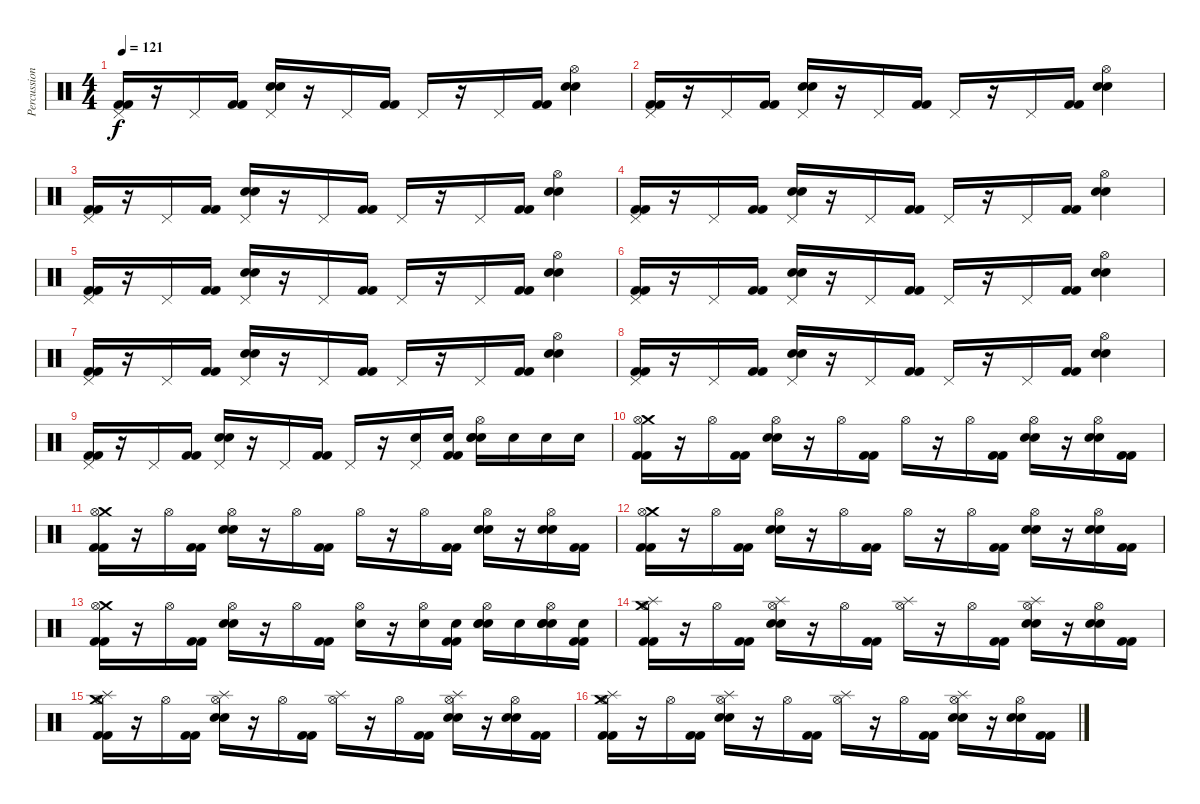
\track ("Percussion- Mike" "Percussion") {instrument percussion}
\staff {score}
\articulation defaults
\ts (4 4)
\tempo 121
\clef neutral
\ks c
("Kick (hit) 2" "Kick (hit) 2" "Pedal Hi-Hat (hit)").16{dy f} r.16 "Pedal Hi-Hat (hit)".16 ("Kick (hit) 2" "Kick (hit) 2").16 ("Snare (hit) 2" "Snare (hit) 2" "Pedal Hi-Hat (hit)").16 r.16 "Pedal Hi-Hat (hit)".16 ("Kick (hit) 2" "Kick (hit) 2").16 "Pedal Hi-Hat (hit)".16 r.16 "Pedal Hi-Hat (hit)".16 ("Kick (hit) 2" "Kick (hit) 2").16 ("Hi-Hat (open)" "Snare (hit) 2" "Snare (hit) 2").4 |
("Kick (hit) 2" "Kick (hit) 2" "Pedal Hi-Hat (hit)").16 r.16 "Pedal Hi-Hat (hit)".16 ("Kick (hit) 2" "Kick (hit) 2").16 ("Snare (hit) 2" "Snare (hit) 2" "Pedal Hi-Hat (hit)").16 r.16 "Pedal Hi-Hat (hit)".16 ("Kick (hit) 2" "Kick (hit) 2").16 "Pedal Hi-Hat (hit)".16 r.16 "Pedal Hi-Hat (hit)".16 ("Kick (hit) 2" "Kick (hit) 2").16 ("Hi-Hat (open)" "Snare (hit) 2" "Snare (hit) 2").4 |
("Kick (hit) 2" "Kick (hit) 2" "Pedal Hi-Hat (hit)").16 r.16 "Pedal Hi-Hat (hit)".16 ("Kick (hit) 2" "Kick (hit) 2").16 ("Snare (hit) 2" "Snare (hit) 2" "Pedal Hi-Hat (hit)").16 r.16 "Pedal Hi-Hat (hit)".16 ("Kick (hit) 2" "Kick (hit) 2").16 "Pedal Hi-Hat (hit)".16 r.16 "Pedal Hi-Hat (hit)".16 ("Kick (hit) 2" "Kick (hit) 2").16 ("Hi-Hat (open)" "Snare (hit) 2" "Snare (hit) 2").4 |
("Kick (hit) 2" "Kick (hit) 2" "Pedal Hi-Hat (hit)").16 r.16 "Pedal Hi-Hat (hit)".16 ("Kick (hit) 2" "Kick (hit) 2").16 ("Snare (hit) 2" "Snare (hit) 2" "Pedal Hi-Hat (hit)").16 r.16 "Pedal Hi-Hat (hit)".16 ("Kick (hit) 2" "Kick (hit) 2").16 "Pedal Hi-Hat (hit)".16 r.16 "Pedal Hi-Hat (hit)".16 ("Kick (hit) 2" "Kick (hit) 2").16 ("Hi-Hat (open)" "Snare (hit) 2" "Snare (hit) 2").4 |
("Kick (hit) 2" "Kick (hit) 2" "Pedal Hi-Hat (hit)").16 r.16 "Pedal Hi-Hat (hit)".16 ("Kick (hit) 2" "Kick (hit) 2").16 ("Snare (hit) 2" "Snare (hit) 2" "Pedal Hi-Hat (hit)").16 r.16 "Pedal Hi-Hat (hit)".16 ("Kick (hit) 2" "Kick (hit) 2").16 "Pedal Hi-Hat (hit)".16 r.16 "Pedal Hi-Hat (hit)".16 ("Kick (hit) 2" "Kick (hit) 2").16 ("Hi-Hat (open)" "Snare (hit) 2" "Snare (hit) 2").4 |
("Kick (hit) 2" "Kick (hit) 2" "Pedal Hi-Hat (hit)").16 r.16 "Pedal Hi-Hat (hit)".16 ("Kick (hit) 2" "Kick (hit) 2").16 ("Snare (hit) 2" "Snare (hit) 2" "Pedal Hi-Hat (hit)").16 r.16 "Pedal Hi-Hat (hit)".16 ("Kick (hit) 2" "Kick (hit) 2").16 "Pedal Hi-Hat (hit)".16 r.16 "Pedal Hi-Hat (hit)".16 ("Kick (hit) 2" "Kick (hit) 2").16 ("Hi-Hat (open)" "Snare (hit) 2" "Snare (hit) 2").4 |
("Kick (hit) 2" "Kick (hit) 2" "Pedal Hi-Hat (hit)").16 r.16 "Pedal Hi-Hat (hit)".16 ("Kick (hit) 2" "Kick (hit) 2").16 ("Snare (hit) 2" "Snare (hit) 2" "Pedal Hi-Hat (hit)").16 r.16 "Pedal Hi-Hat (hit)".16 ("Kick (hit) 2" "Kick (hit) 2").16 "Pedal Hi-Hat (hit)".16 r.16 "Pedal Hi-Hat (hit)".16 ("Kick (hit) 2" "Kick (hit) 2").16 ("Hi-Hat (open)" "Snare (hit) 2" "Snare (hit) 2").4 |
("Kick (hit) 2" "Kick (hit) 2" "Pedal Hi-Hat (hit)").16 r.16 "Pedal Hi-Hat (hit)".16 ("Kick (hit) 2" "Kick (hit) 2").16 ("Snare (hit) 2" "Snare (hit) 2" "Pedal Hi-Hat (hit)").16 r.16 "Pedal Hi-Hat (hit)".16 ("Kick (hit) 2" "Kick (hit) 2").16 "Pedal Hi-Hat (hit)".16 r.16 "Pedal Hi-Hat (hit)".16 ("Kick (hit) 2" "Kick (hit) 2").16 ("Hi-Hat (open)" "Snare (hit) 2" "Snare (hit) 2").4 |
("Kick (hit) 2" "Kick (hit) 2" "Pedal Hi-Hat (hit)").16 r.16 "Pedal Hi-Hat (hit)".16 ("Kick (hit) 2" "Kick (hit) 2").16 ("Snare (hit) 2" "Snare (hit) 2" "Pedal Hi-Hat (hit)").16 r.16 "Pedal Hi-Hat (hit)".16 ("Kick (hit) 2" "Kick (hit) 2").16 "Pedal Hi-Hat (hit)".16 r.16 ("Electric Snare (hit)" "Pedal Hi-Hat (hit)").16 ("Electric Snare (hit)" "Kick (hit) 2" "Kick (hit) 2").16 ("Electric Snare (hit)" "Hi-Hat (open)" "Snare (hit) 2" "Snare (hit) 2").16 "Electric Snare (hit)".16 "Electric Snare (hit)".16 "Electric Snare (hit)".16 |
("Crash medium (hit)" "Kick (hit) 2" "Kick (hit) 2" "Hi-Hat (open)").16 r.16 "Hi-Hat (open)".16 ("Kick (hit) 2" "Kick (hit) 2").16 ("Snare (hit) 2" "Snare (hit) 2" "Hi-Hat (open)").16 r.16 "Hi-Hat (open)".16 ("Kick (hit) 2" "Kick (hit) 2").16 "Hi-Hat (open)".16 r.16 "Hi-Hat (open)".16 ("Kick (hit) 2" "Kick (hit) 2").16 ("Snare (hit) 2" "Snare (hit) 2" "Hi-Hat (open)").16 r.16 ("Electric Snare (hit)" "Electric Snare (hit)" "Hi-Hat (open)").16 ("Kick (hit) 2" "Kick (hit) 2").16 |
("Crash medium (hit)" "Kick (hit) 2" "Kick (hit) 2" "Hi-Hat (open)").16 r.16 "Hi-Hat (open)".16 ("Kick (hit) 2" "Kick (hit) 2").16 ("Snare (hit) 2" "Snare (hit) 2" "Hi-Hat (open)").16 r.16 "Hi-Hat (open)".16 ("Kick (hit) 2" "Kick (hit) 2").16 "Hi-Hat (open)".16 r.16 "Hi-Hat (open)".16 ("Kick (hit) 2" "Kick (hit) 2").16 ("Snare (hit) 2" "Snare (hit) 2" "Hi-Hat (open)").16 r.16 ("Electric Snare (hit)" "Electric Snare (hit)" "Hi-Hat (open)").16 ("Kick (hit) 2" "Kick (hit) 2").16 |
("Crash medium (hit)" "Kick (hit) 2" "Kick (hit) 2" "Hi-Hat (open)").16 r.16 "Hi-Hat (open)".16 ("Kick (hit) 2" "Kick (hit) 2").16 ("Snare (hit) 2" "Snare (hit) 2" "Hi-Hat (open)").16 r.16 "Hi-Hat (open)".16 ("Kick (hit) 2" "Kick (hit) 2").16 "Hi-Hat (open)".16 r.16 "Hi-Hat (open)".16 ("Kick (hit) 2" "Kick (hit) 2").16 ("Snare (hit) 2" "Snare (hit) 2" "Hi-Hat (open)").16 r.16 ("Electric Snare (hit)" "Electric Snare (hit)" "Hi-Hat (open)").16 ("Kick (hit) 2" "Kick (hit) 2").16 |
("Crash medium (hit)" "Kick (hit) 2" "Kick (hit) 2" "Hi-Hat (open)").16 r.16 "Hi-Hat (open)".16 ("Kick (hit) 2" "Kick (hit) 2").16 ("Snare (hit) 2" "Snare (hit) 2" "Hi-Hat (open)").16 r.16 "Hi-Hat (open)".16 ("Kick (hit) 2" "Kick (hit) 2").16 ("Electric Snare (hit)" "Hi-Hat (open)").16 r.16 ("Electric Snare (hit)" "Hi-Hat (open)").16 ("Electric Snare (hit)" "Kick (hit) 2" "Kick (hit) 2").16 ("Electric Snare (hit)" "Snare (hit) 2" "Snare (hit) 2" "Hi-Hat (open)").16 "Electric Snare (hit)".16 ("Electric Snare (hit)" "Electric Snare (hit)" "Electric Snare (hit)" "Hi-Hat (open)").16 ("Electric Snare (hit)" "Kick (hit) 2" "Kick (hit) 2").16 |
("Splash (hit)" "Crash medium (hit)" "Kick (hit) 2" "Kick (hit) 2" "Hi-Hat (open)").16 r.16 "Hi-Hat (open)".16 ("Kick (hit) 2" "Kick (hit) 2").16 ("Splash (hit)" "Snare (hit) 2" "Snare (hit) 2" "Hi-Hat (open)").16 r.16 "Hi-Hat (open)".16 ("Kick (hit) 2" "Kick (hit) 2").16 ("Splash (hit)" "Hi-Hat (open)").16 r.16 "Hi-Hat (open)".16 ("Kick (hit) 2" "Kick (hit) 2").16 ("Splash (hit)" "Snare (hit) 2" "Snare (hit) 2" "Hi-Hat (open)").16 r.16 ("Electric Snare (hit)" "Electric Snare (hit)" "Hi-Hat (open)").16 ("Kick (hit) 2" "Kick (hit) 2").16 |
("Splash (hit)" "Crash medium (hit)" "Kick (hit) 2" "Kick (hit) 2" "Hi-Hat (open)").16 r.16 "Hi-Hat (open)".16 ("Kick (hit) 2" "Kick (hit) 2").16 ("Splash (hit)" "Snare (hit) 2" "Snare (hit) 2" "Hi-Hat (open)").16 r.16 "Hi-Hat (open)".16 ("Kick (hit) 2" "Kick (hit) 2").16 ("Splash (hit)" "Hi-Hat (open)").16 r.16 "Hi-Hat (open)".16 ("Kick (hit) 2" "Kick (hit) 2").16 ("Splash (hit)" "Snare (hit) 2" "Snare (hit) 2" "Hi-Hat (open)").16 r.16 ("Electric Snare (hit)" "Electric Snare (hit)" "Hi-Hat (open)").16 ("Kick (hit) 2" "Kick (hit) 2").16 |
("Splash (hit)" "Crash medium (hit)" "Kick (hit) 2" "Kick (hit) 2" "Hi-Hat (open)").16 r.16 "Hi-Hat (open)".16 ("Kick (hit) 2" "Kick (hit) 2").16 ("Splash (hit)" "Snare (hit) 2" "Snare (hit) 2" "Hi-Hat (open)").16 r.16 "Hi-Hat (open)".16 ("Kick (hit) 2" "Kick (hit) 2").16 ("Splash (hit)" "Hi-Hat (open)").16 r.16 "Hi-Hat (open)".16 ("Kick (hit) 2" "Kick (hit) 2").16 ("Splash (hit)" "Snare (hit) 2" "Snare (hit) 2" "Hi-Hat (open)").16 r.16 ("Electric Snare (hit)" "Electric Snare (hit)" "Hi-Hat (open)").16 ("Kick (hit) 2" "Kick (hit) 2").16
